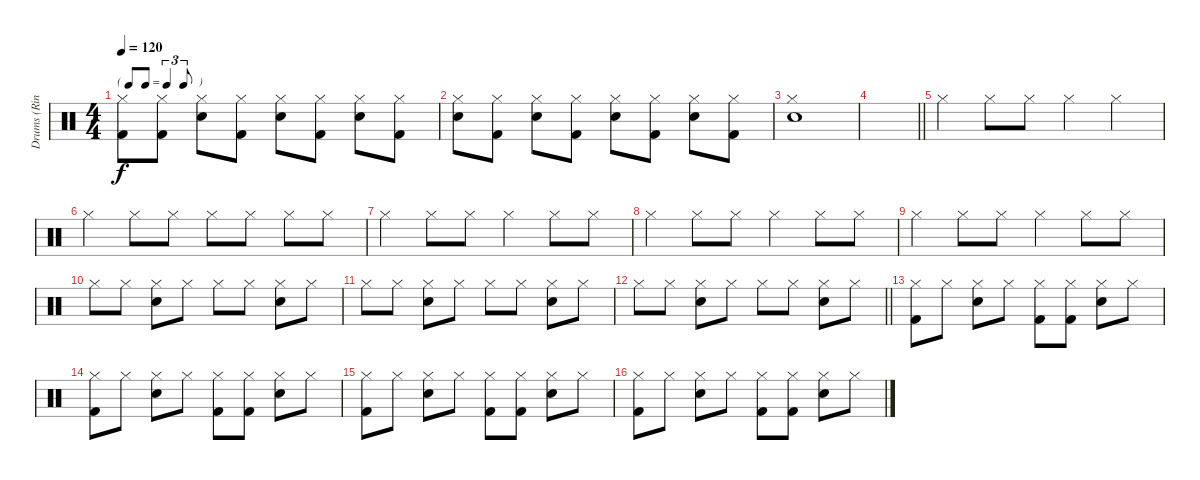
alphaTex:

\track ("Drums (Ringo Starr)" "Drums (Rin") {instrument percussion}
\staff {score}
\articulation defaults
\ts (4 4)
\tf triplet8th
\tempo 120
\clef neutral
\ks c
("Hi-Hat (closed)" "Kick (hit) 2").8{dy f} ("Hi-Hat (closed)" "Kick (hit) 2").8 ("Hi-Hat (closed)" "Snare (hit) 2").8 ("Hi-Hat (closed)" "Kick (hit) 2").8 ("Hi-Hat (closed)" "Snare (hit) 2").8 ("Hi-Hat (closed)" "Kick (hit) 2").8 ("Hi-Hat (closed)" "Snare (hit) 2").8 ("Hi-Hat (closed)" "Kick (hit) 2").8 |
("Hi-Hat (closed)" "Snare (hit) 2").8 ("Hi-Hat (closed)" "Kick (hit) 2").8 ("Hi-Hat (closed)" "Snare (hit) 2").8 ("Hi-Hat (closed)" "Kick (hit) 2").8 ("Hi-Hat (closed)" "Snare (hit) 2").8 ("Hi-Hat (closed)" "Kick (hit) 2").8 ("Hi-Hat (closed)" "Snare (hit) 2").8 ("Hi-Hat (closed)" "Kick (hit) 2").8 |
("Hi-Hat (closed)" "Snare (hit) 2").1 |
\barLineRight lightlight
|
"Hi-Hat (closed)".4 "Hi-Hat (closed)".8 "Hi-Hat (closed)".8 "Hi-Hat (closed)".4 "Hi-Hat (closed)".4 |
"Hi-Hat (closed)".4 "Hi-Hat (closed)".8 "Hi-Hat (closed)".8 "Hi-Hat (closed)".8 "Hi-Hat (closed)".8 "Hi-Hat (closed)".8 "Hi-Hat (closed)".8 |
"Hi-Hat (closed)".4 "Hi-Hat (closed)".8 "Hi-Hat (closed)".8 "Hi-Hat (closed)".4 "Hi-Hat (closed)".8 "Hi-Hat (closed)".8 |
"Hi-Hat (closed)".4 "Hi-Hat (closed)".8 "Hi-Hat (closed)".8 "Hi-Hat (closed)".4 "Hi-Hat (closed)".8 "Hi-Hat (closed)".8 |
"Hi-Hat (closed)".4 "Hi-Hat (closed)".8 "Hi-Hat (closed)".8 "Hi-Hat (closed)".4 "Hi-Hat (closed)".8 "Hi-Hat (closed)".8 |
"Hi-Hat (closed)".8 "Hi-Hat (closed)".8 ("Hi-Hat (closed)" "Snare (hit) 2").8 "Hi-Hat (closed)".8 "Hi-Hat (closed)".8 "Hi-Hat (closed)".8 ("Hi-Hat (closed)" "Snare (hit) 2").8 "Hi-Hat (closed)".8 |
"Hi-Hat (closed)".8 "Hi-Hat (closed)".8 ("Hi-Hat (closed)" "Snare (hit) 2").8 "Hi-Hat (closed)".8 "Hi-Hat (closed)".8 "Hi-Hat (closed)".8 ("Hi-Hat (closed)" "Snare (hit) 2").8 "Hi-Hat (closed)".8 |
\barLineRight lightlight "Hi-Hat (closed)".8 "Hi-Hat (closed)".8
("Hi-Hat (closed)" "Snare (hit) 2").8 "Hi-Hat (closed)".8 "Hi-Hat (closed)".8 "Hi-Hat (closed)".8 ("Hi-Hat (closed)" "Snare (hit) 2").8 "Hi-Hat (closed)".8 |
("Hi-Hat (closed)" "Kick (hit) 2").8 "Hi-Hat (closed)".8 ("Hi-Hat (closed)" "Snare (hit) 2").8 "Hi-Hat (closed)".8 ("Hi-Hat (closed)" "Kick (hit) 2").8 ("Hi-Hat (closed)" "Kick (hit) 2").8 ("Hi-Hat (closed)" "Snare (hit) 2").8 "Hi-Hat (closed)".8 |
("Hi-Hat (closed)" "Kick (hit) 2").8 "Hi-Hat (closed)".8 ("Hi-Hat (closed)" "Snare (hit) 2").8 "Hi-Hat (closed)".8 ("Hi-Hat (closed)" "Kick (hit) 2").8 ("Hi-Hat (closed)" "Kick (hit) 2").8 ("Hi-Hat (closed)" "Snare (hit) 2").8 "Hi-Hat (closed)".8 |
("Hi-Hat (closed)" "Kick (hit) 2").8 "Hi-Hat (closed)".8 ("Hi-Hat (closed)" "Snare (hit) 2").8 "Hi-Hat (closed)".8 ("Hi-Hat (closed)" "Kick (hit) 2").8 ("Hi-Hat (closed)" "Kick (hit) 2").8 ("Hi-Hat (closed)" "Snare (hit) 2").8 "Hi-Hat (closed)".8 |
("Hi-Hat (closed)" "Kick (hit) 2").8 "Hi-Hat (closed)".8 ("Hi-Hat (closed)" "Snare (hit) 2").8 "Hi-Hat (closed)".8 ("Hi-Hat (closed)" "Kick (hit) 2").8 ("Hi-Hat (closed)" "Kick (hit) 2").8 ("Hi-Hat (closed)" "Snare (hit) 2").8 "Hi-Hat (closed)".8
